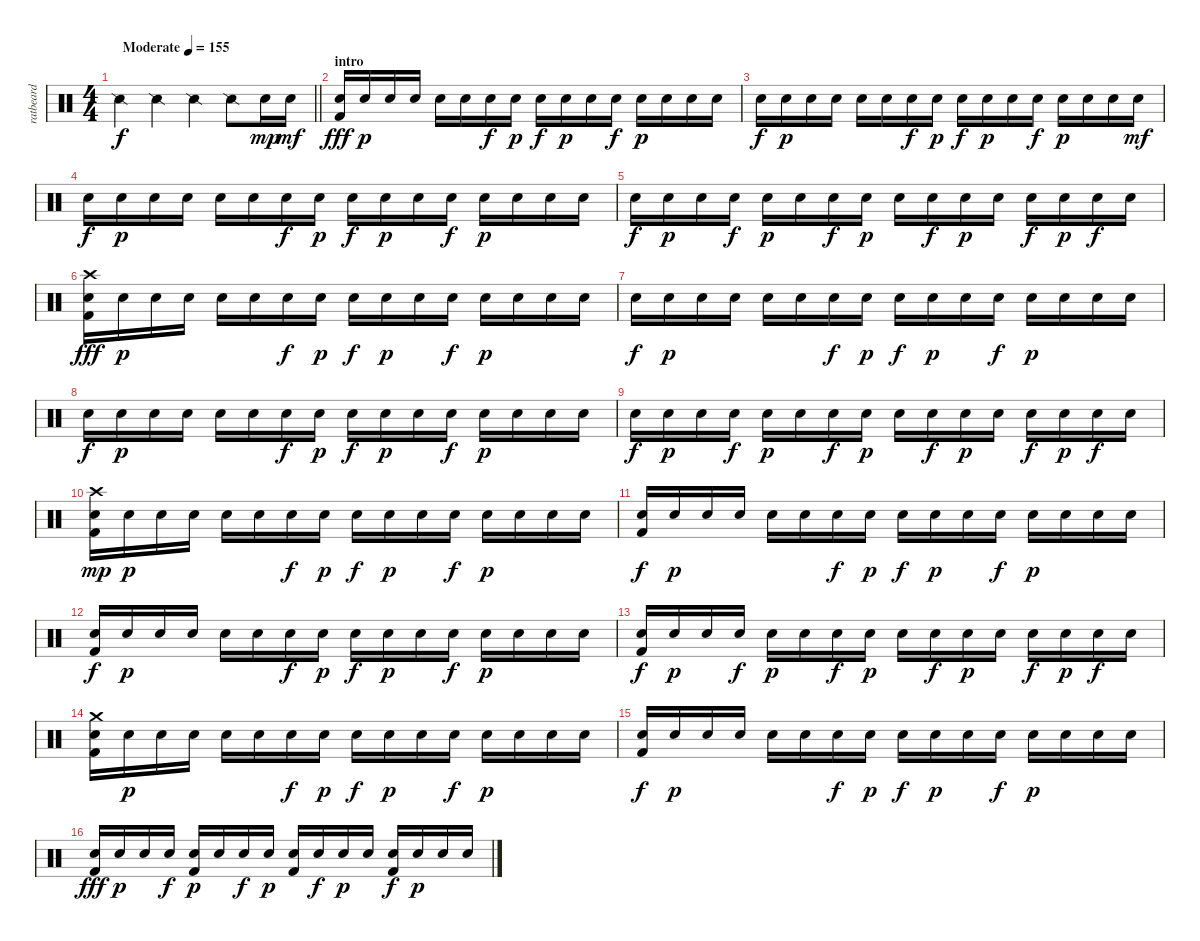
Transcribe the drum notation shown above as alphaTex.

\track ("ratbeard" "ratbeard") {instrument percussion}
\staff {score}
\articulation defaults
\ts (4 4)
\tempo (155 "Moderate")
\clef neutral
\barLineRight lightlight
\ks c "Snare (side stick) 2".4{dy f} "Snare (side stick) 2".4 "Snare (side stick) 2".4 "Snare (side stick) 2".8 "Electric Snare (hit)".16{dy mp} "Electric Snare (hit)".16{dy mf}
|
\section ("" "intro")
("Electric Snare (hit)" "Kick (hit) 2").16{dy fff} "Electric Snare (hit)".16{dy p} "Electric Snare (hit)".16 "Electric Snare (hit)".16 "Electric Snare (hit)".16 "Electric Snare (hit)".16 "Electric Snare (hit)".16{dy f} "Electric Snare (hit)".16{dy p} "Electric Snare (hit)".16{dy f} "Electric Snare (hit)".16{dy p} "Electric Snare (hit)".16 "Electric Snare (hit)".16{dy f} "Electric Snare (hit)".16{dy p} "Electric Snare (hit)".16 "Electric Snare (hit)".16 "Electric Snare (hit)".16 |
"Electric Snare (hit)".16{dy f} "Electric Snare (hit)".16{dy p} "Electric Snare (hit)".16 "Electric Snare (hit)".16 "Electric Snare (hit)".16 "Electric Snare (hit)".16 "Electric Snare (hit)".16{dy f} "Electric Snare (hit)".16{dy p} "Electric Snare (hit)".16{dy f} "Electric Snare (hit)".16{dy p} "Electric Snare (hit)".16 "Electric Snare (hit)".16{dy f} "Electric Snare (hit)".16{dy p} "Electric Snare (hit)".16 "Electric Snare (hit)".16 "Electric Snare (hit)".16{dy mf} |
"Electric Snare (hit)".16{dy f} "Electric Snare (hit)".16{dy p} "Electric Snare (hit)".16 "Electric Snare (hit)".16 "Electric Snare (hit)".16 "Electric Snare (hit)".16 "Electric Snare (hit)".16{dy f} "Electric Snare (hit)".16{dy p} "Electric Snare (hit)".16{dy f} "Electric Snare (hit)".16{dy p} "Electric Snare (hit)".16 "Electric Snare (hit)".16{dy f} "Electric Snare (hit)".16{dy p} "Electric Snare (hit)".16 "Electric Snare (hit)".16 "Electric Snare (hit)".16 |
"Electric Snare (hit)".16{dy f} "Electric Snare (hit)".16{dy p} "Electric Snare (hit)".16 "Electric Snare (hit)".16{dy f} "Electric Snare (hit)".16{dy p} "Electric Snare (hit)".16 "Electric Snare (hit)".16{dy f} "Electric Snare (hit)".16{dy p} "Electric Snare (hit)".16 "Electric Snare (hit)".16{dy f} "Electric Snare (hit)".16{dy p} "Electric Snare (hit)".16 "Electric Snare (hit)".16{dy f} "Electric Snare (hit)".16{dy p} "Electric Snare (hit)".16{dy f} "Electric Snare (hit)".16 |
("Crash high (hit)" "Electric Snare (hit)" "Kick (hit) 2").16{dy fff} "Electric Snare (hit)".16{dy p} "Electric Snare (hit)".16 "Electric Snare (hit)".16 "Electric Snare (hit)".16 "Electric Snare (hit)".16 "Electric Snare (hit)".16{dy f} "Electric Snare (hit)".16{dy p} "Electric Snare (hit)".16{dy f} "Electric Snare (hit)".16{dy p} "Electric Snare (hit)".16 "Electric Snare (hit)".16{dy f} "Electric Snare (hit)".16{dy p} "Electric Snare (hit)".16 "Electric Snare (hit)".16 "Electric Snare (hit)".16 |
"Electric Snare (hit)".16{dy f} "Electric Snare (hit)".16{dy p} "Electric Snare (hit)".16 "Electric Snare (hit)".16 "Electric Snare (hit)".16 "Electric Snare (hit)".16 "Electric Snare (hit)".16{dy f} "Electric Snare (hit)".16{dy p} "Electric Snare (hit)".16{dy f} "Electric Snare (hit)".16{dy p} "Electric Snare (hit)".16 "Electric Snare (hit)".16{dy f} "Electric Snare (hit)".16{dy p} "Electric Snare (hit)".16 "Electric Snare (hit)".16 "Electric Snare (hit)".16 |
"Electric Snare (hit)".16{dy f} "Electric Snare (hit)".16{dy p} "Electric Snare (hit)".16 "Electric Snare (hit)".16 "Electric Snare (hit)".16 "Electric Snare (hit)".16 "Electric Snare (hit)".16{dy f} "Electric Snare (hit)".16{dy p} "Electric Snare (hit)".16{dy f} "Electric Snare (hit)".16{dy p} "Electric Snare (hit)".16 "Electric Snare (hit)".16{dy f} "Electric Snare (hit)".16{dy p} "Electric Snare (hit)".16 "Electric Snare (hit)".16 "Electric Snare (hit)".16 |
"Electric Snare (hit)".16{dy f} "Electric Snare (hit)".16{dy p} "Electric Snare (hit)".16 "Electric Snare (hit)".16{dy f} "Electric Snare (hit)".16{dy p} "Electric Snare (hit)".16 "Electric Snare (hit)".16{dy f} "Electric Snare (hit)".16{dy p} "Electric Snare (hit)".16 "Electric Snare (hit)".16{dy f} "Electric Snare (hit)".16{dy p} "Electric Snare (hit)".16 "Electric Snare (hit)".16{dy f} "Electric Snare (hit)".16{dy p} "Electric Snare (hit)".16{dy f} "Electric Snare (hit)".16 |
("Crash high (hit)" "Electric Snare (hit)" "Kick (hit) 2").16{dy mp} "Electric Snare (hit)".16{dy p} "Electric Snare (hit)".16 "Electric Snare (hit)".16 "Electric Snare (hit)".16 "Electric Snare (hit)".16 "Electric Snare (hit)".16{dy f} "Electric Snare (hit)".16{dy p} "Electric Snare (hit)".16{dy f} "Electric Snare (hit)".16{dy p} "Electric Snare (hit)".16 "Electric Snare (hit)".16{dy f} "Electric Snare (hit)".16{dy p} "Electric Snare (hit)".16 "Electric Snare (hit)".16 "Electric Snare (hit)".16 |
("Electric Snare (hit)" "Kick (hit) 2").16{dy f} "Electric Snare (hit)".16{dy p} "Electric Snare (hit)".16 "Electric Snare (hit)".16 "Electric Snare (hit)".16 "Electric Snare (hit)".16 "Electric Snare (hit)".16{dy f} "Electric Snare (hit)".16{dy p} "Electric Snare (hit)".16{dy f} "Electric Snare (hit)".16{dy p} "Electric Snare (hit)".16 "Electric Snare (hit)".16{dy f} "Electric Snare (hit)".16{dy p} "Electric Snare (hit)".16 "Electric Snare (hit)".16 "Electric Snare (hit)".16 |
("Electric Snare (hit)" "Kick (hit) 2").16{dy f} "Electric Snare (hit)".16{dy p} "Electric Snare (hit)".16 "Electric Snare (hit)".16 "Electric Snare (hit)".16 "Electric Snare (hit)".16 "Electric Snare (hit)".16{dy f} "Electric Snare (hit)".16{dy p} "Electric Snare (hit)".16{dy f} "Electric Snare (hit)".16{dy p} "Electric Snare (hit)".16 "Electric Snare (hit)".16{dy f} "Electric Snare (hit)".16{dy p} "Electric Snare (hit)".16 "Electric Snare (hit)".16 "Electric Snare (hit)".16 |
("Electric Snare (hit)" "Kick (hit) 2").16{dy f} "Electric Snare (hit)".16{dy p} "Electric Snare (hit)".16 "Electric Snare (hit)".16{dy f} "Electric Snare (hit)".16{dy p} "Electric Snare (hit)".16 "Electric Snare (hit)".16{dy f} "Electric Snare (hit)".16{dy p} "Electric Snare (hit)".16 "Electric Snare (hit)".16{dy f} "Electric Snare (hit)".16{dy p} "Electric Snare (hit)".16 "Electric Snare (hit)".16{dy f} "Electric Snare (hit)".16{dy p} "Electric Snare (hit)".16{dy f} "Electric Snare (hit)".16 |
("Crash medium (hit)" "Electric Snare (hit)" "Kick (hit) 2").16 "Electric Snare (hit)".16{dy p} "Electric Snare (hit)".16 "Electric Snare (hit)".16 "Electric Snare (hit)".16 "Electric Snare (hit)".16 "Electric Snare (hit)".16{dy f} "Electric Snare (hit)".16{dy p} "Electric Snare (hit)".16{dy f} "Electric Snare (hit)".16{dy p} "Electric Snare (hit)".16 "Electric Snare (hit)".16{dy f} "Electric Snare (hit)".16{dy p} "Electric Snare (hit)".16 "Electric Snare (hit)".16 "Electric Snare (hit)".16 |
("Electric Snare (hit)" "Kick (hit) 2").16{dy f} "Electric Snare (hit)".16{dy p} "Electric Snare (hit)".16 "Electric Snare (hit)".16 "Electric Snare (hit)".16 "Electric Snare (hit)".16 "Electric Snare (hit)".16{dy f} "Electric Snare (hit)".16{dy p} "Electric Snare (hit)".16{dy f} "Electric Snare (hit)".16{dy p} "Electric Snare (hit)".16 "Electric Snare (hit)".16{dy f} "Electric Snare (hit)".16{dy p} "Electric Snare (hit)".16 "Electric Snare (hit)".16 "Electric Snare (hit)".16 |
("Electric Snare (hit)" "Kick (hit) 2").16{dy fff} "Electric Snare (hit)".16{dy p} "Electric Snare (hit)".16 "Electric Snare (hit)".16{dy f} ("Electric Snare (hit)" "Kick (hit) 2").16{dy p} "Electric Snare (hit)".16 "Electric Snare (hit)".16{dy f} "Electric Snare (hit)".16{dy p} ("Electric Snare (hit)" "Kick (hit) 2").16 "Electric Snare (hit)".16{dy f} "Electric Snare (hit)".16{dy p} "Electric Snare (hit)".16 ("Electric Snare (hit)" "Kick (hit) 2").16{dy f} "Electric Snare (hit)".16{dy p} "Electric Snare (hit)".16 "Electric Snare (hit)".16
